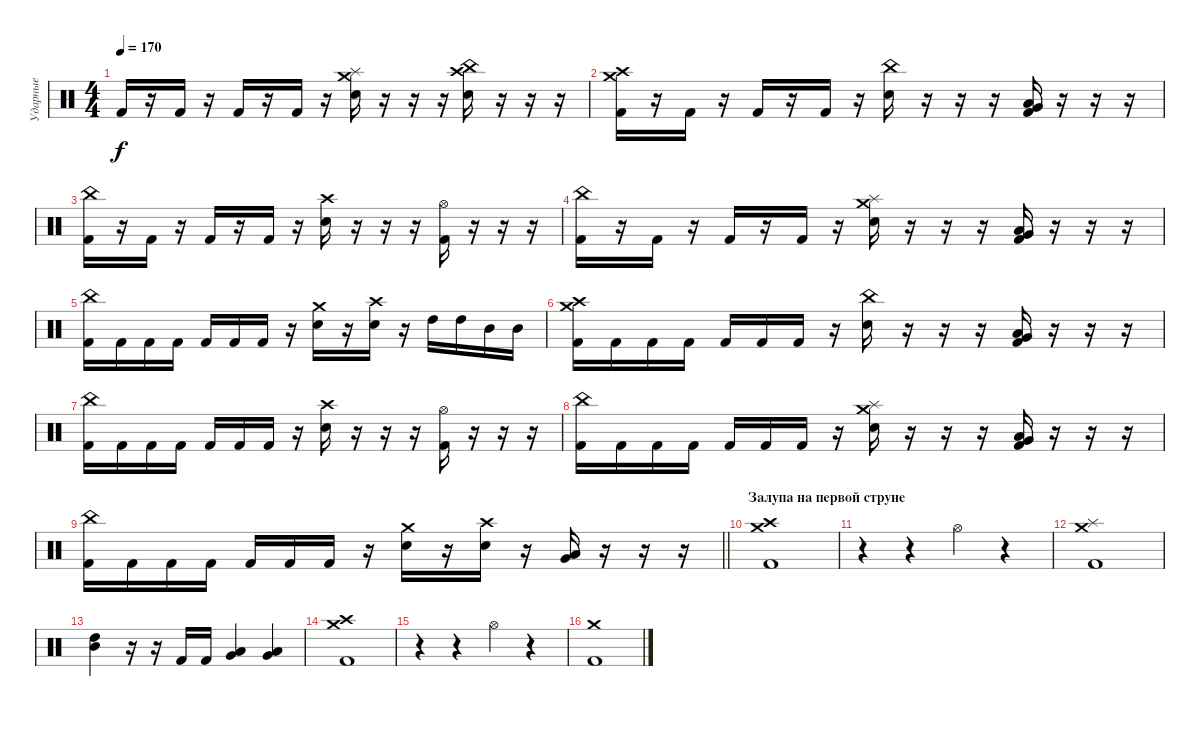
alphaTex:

\track ("Ударные" "Ударные") {instrument percussion}
\staff {score}
\articulation defaults
\ts (4 4)
\tempo 170
\clef neutral
\ks c "Kick (hit) 2".16{dy f}
r.16 "Kick (hit) 2".16 r.16 "Kick (hit) 2".16 r.16 "Kick (hit) 2".16 r.16 ("Electric Snare (hit)" "Splash (hit)" "Crash medium (hit)").16 r.16 r.16 r.16 ("Electric Snare (hit)" "Crash high (hit)" "China (hit)").16 r.16 r.16 r.16 |
("Kick (hit) 2" "Crash high (hit)" "Crash medium (hit)").16 r.16 "Kick (hit) 2".16 r.16 "Kick (hit) 2".16 r.16 "Kick (hit) 2".16 r.16 ("Electric Snare (hit)" "China (hit)").16 r.16 r.16 r.16 ("Kick (hit) 2" "Very Low Tom (hit)" "Low Floor Tom (hit)").16 r.16 r.16 r.16 |
("Kick (hit) 2" "China (hit)").16 r.16 "Kick (hit) 2".16 r.16 "Kick (hit) 2".16 r.16 "Kick (hit) 2".16 r.16 ("Electric Snare (hit)" "Crash high (hit)").16 r.16 r.16 r.16 ("Kick (hit) 2" "Hi-Hat (open)").16 r.16 r.16 r.16 |
("Kick (hit) 2" "China (hit)").16 r.16 "Kick (hit) 2".16 r.16 "Kick (hit) 2".16 r.16 "Kick (hit) 2".16 r.16 ("Electric Snare (hit)" "Splash (hit)" "Crash medium (hit)").16 r.16 r.16 r.16 ("Kick (hit) 2" "Low Floor Tom (hit)" "Very Low Tom (hit)").16 r.16 r.16 r.16 |
("Kick (hit) 2" "China (hit)").16 "Kick (hit) 2".16 "Kick (hit) 2".16 "Kick (hit) 2".16 "Kick (hit) 2".16 "Kick (hit) 2".16 "Kick (hit) 2".16 r.16 ("Electric Snare (hit)" "Crash medium (hit)").16 r.16 ("Electric Snare (hit)" "Crash high (hit)").16 r.16 "High Tom (hit)".16 "High Tom (hit)".16 "Mid Tom (hit)".16 "Mid Tom (hit)".16 |
("Kick (hit) 2" "Crash high (hit)" "Crash medium (hit)").16 "Kick (hit) 2".16 "Kick (hit) 2".16 "Kick (hit) 2".16 "Kick (hit) 2".16 "Kick (hit) 2".16 "Kick (hit) 2".16 r.16 ("Electric Snare (hit)" "China (hit)").16 r.16 r.16 r.16 ("Kick (hit) 2" "Very Low Tom (hit)" "Low Floor Tom (hit)").16 r.16 r.16 r.16 |
("Kick (hit) 2" "China (hit)").16 "Kick (hit) 2".16 "Kick (hit) 2".16 "Kick (hit) 2".16 "Kick (hit) 2".16 "Kick (hit) 2".16 "Kick (hit) 2".16 r.16 ("Electric Snare (hit)" "Crash high (hit)").16 r.16 r.16 r.16 ("Kick (hit) 2" "Hi-Hat (open)").16 r.16 r.16 r.16 |
("Kick (hit) 2" "China (hit)").16 "Kick (hit) 2".16 "Kick (hit) 2".16 "Kick (hit) 2".16 "Kick (hit) 2".16 "Kick (hit) 2".16 "Kick (hit) 2".16 r.16 ("Electric Snare (hit)" "Splash (hit)" "Crash medium (hit)").16 r.16 r.16 r.16 ("Kick (hit) 2" "Low Floor Tom (hit)" "Very Low Tom (hit)").16 r.16 r.16 r.16 |
\barLineRight lightlight
("Kick (hit) 2" "China (hit)").16 "Kick (hit) 2".16 "Kick (hit) 2".16 "Kick (hit) 2".16 "Kick (hit) 2".16 "Kick (hit) 2".16 "Kick (hit) 2".16 r.16 ("Electric Snare (hit)" "Crash medium (hit)").16 r.16 ("Electric Snare (hit)" "Crash high (hit)").16 r.16 ("Low Floor Tom (hit)" "Very Low Tom (hit)").16 r.16 r.16 r.16 |
\section ("" "Залупа на первой струне")
("Kick (hit) 2" "Crash high (hit)" "Crash medium (hit)").1 |
r.4 r.4 "Hi-Hat (open)".4 r.4 |
("Kick (hit) 2" "Splash (hit)" "Crash medium (hit)").1 |
("Mid Tom (hit)" "High Tom (hit)").4 r.16 r.16 "Kick (hit) 2".16 "Kick (hit) 2".16 ("Very Low Tom (hit)" "Low Tom (hit)").4 ("Low Floor Tom (hit)" "Very Low Tom (hit)").4 |
("Kick (hit) 2" "Crash high (hit)" "Crash medium (hit)").1 |
r.4 r.4 "Hi-Hat (open)".4 r.4 |
("Kick (hit) 2" "Crash medium (hit)").1
